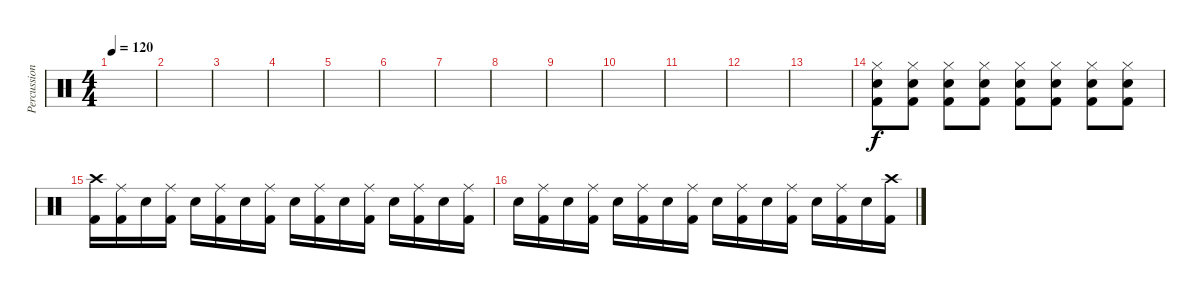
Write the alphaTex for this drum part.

\track ("Percussion" "Percussion") {instrument percussion}
\staff {score}
\articulation defaults
\ts (4 4)
\tempo 120
\clef neutral
\ks c
|
|
|
|
|
|
|
|
|
|
|
|
|
("Hi-Hat (closed)" "Snare (hit) 2" "Kick (hit) 2").8 ("Hi-Hat (closed)" "Snare (hit) 2" "Kick (hit) 2").8 ("Hi-Hat (closed)" "Snare (hit) 2" "Kick (hit) 2").8 ("Hi-Hat (closed)" "Snare (hit) 2" "Kick (hit) 2").8 ("Hi-Hat (closed)" "Snare (hit) 2" "Kick (hit) 2").8 ("Hi-Hat (closed)" "Snare (hit) 2" "Kick (hit) 2").8 ("Hi-Hat (closed)" "Snare (hit) 2" "Kick (hit) 2").8 ("Hi-Hat (closed)" "Snare (hit) 2" "Kick (hit) 2").8 |
("Crash high (hit)" "Kick (hit) 2").16 ("Ride (middle)" "Kick (hit) 2").16 "Snare (hit) 2".16 ("Ride (middle)" "Kick (hit) 2").16 "Snare (hit) 2".16 ("Ride (middle)" "Kick (hit) 2").16 "Snare (hit) 2".16 ("Ride (middle)" "Kick (hit) 2").16 "Snare (hit) 2".16 ("Ride (middle)" "Kick (hit) 2").16 "Snare (hit) 2".16 ("Ride (middle)" "Kick (hit) 2").16 "Snare (hit) 2".16 ("Ride (middle)" "Kick (hit) 2").16 "Snare (hit) 2".16 ("Ride (middle)" "Kick (hit) 2").16 |
"Snare (hit) 2".16 ("Ride (middle)" "Kick (hit) 2").16 "Snare (hit) 2".16 ("Ride (middle)" "Kick (hit) 2").16 "Snare (hit) 2".16 ("Ride (middle)" "Kick (hit) 2").16 "Snare (hit) 2".16 ("Ride (middle)" "Kick (hit) 2").16 "Snare (hit) 2".16 ("Ride (middle)" "Kick (hit) 2").16 "Snare (hit) 2".16 ("Ride (middle)" "Kick (hit) 2").16 "Snare (hit) 2".16 ("Ride (middle)" "Kick (hit) 2").16 "Snare (hit) 2".16 ("Crash high (hit)" "Kick (hit) 2").16
